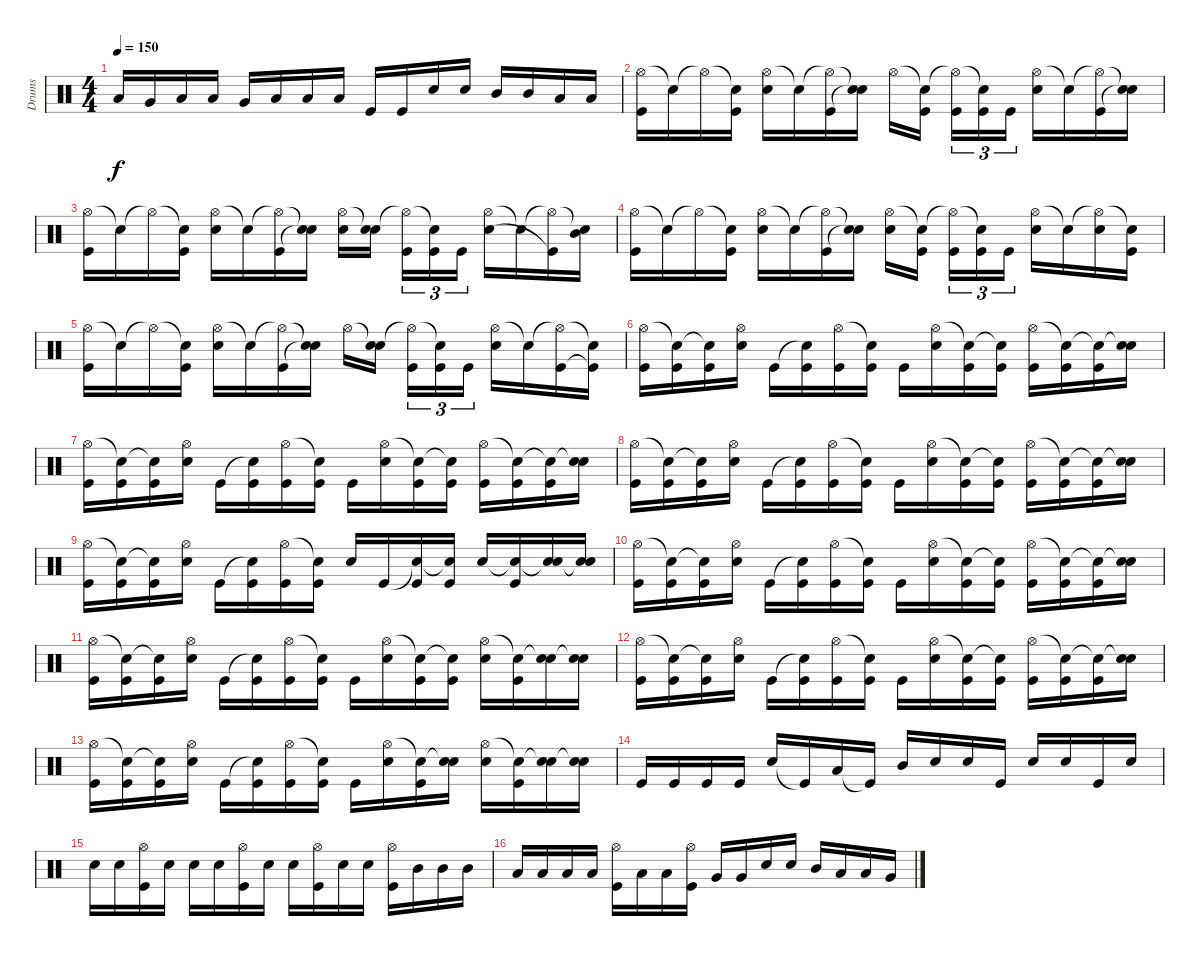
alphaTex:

\track ("Drums" "Drums") {instrument percussion}
\staff {score}
\articulation defaults
\ts (4 4)
\tempo 150
\clef neutral
\ks c "Low Tom (hit)".16{dy f} "Very Low Tom (hit)".16 "Low Floor Tom (hit)".16 "Low Tom (hit)".16 "Very Low Tom (hit)".16 "Low Floor Tom (hit)".16 "Low Tom (hit)".16 "Low Tom (hit)".16 "Kick (hit)".16 "Kick (hit)".16 "Electric Snare (hit)".16 "Electric Snare (hit)".16 "Mid Tom (hit)".16 "Mid Tom (hit)".16 "Low Tom (hit)".16 "Low Tom (hit)".16
|
("Hi-Hat (open)" "Kick (hit)").16 "Snare (hit)"{t}.16 "Hi-Hat (open)"{t}.16 ("Snare (hit)"{t} "Kick (hit)").16 ("Hi-Hat (open)" "Electric Snare (hit)").16 "Snare (hit)"{t}.16 ("Hi-Hat (open)"{t} "Kick (hit)").16 ("Snare (hit)"{t} "Electric Snare (hit)"{t}).16 "Hi-Hat (open)".16 ("Snare (hit)"{t} "Kick (hit)").16 ("Hi-Hat (open)"{t} "Kick (hit)").16{tu (3 2)} ("Snare (hit)"{t} "Kick (hit)").16{tu (3 2)} "Kick (hit)".16{tu (3 2)} ("Hi-Hat (open)" "Electric Snare (hit)").16 "Snare (hit)"{t}.16 ("Hi-Hat (open)"{t} "Kick (hit)").16 ("Snare (hit)"{t} "Electric Snare (hit)"{t}).16 |
("Hi-Hat (open)" "Kick (hit)").16 "Snare (hit)"{t}.16 "Hi-Hat (open)"{t}.16 ("Snare (hit)"{t} "Kick (hit)").16 ("Hi-Hat (open)" "Electric Snare (hit)").16 "Snare (hit)"{t}.16 ("Hi-Hat (open)"{t} "Kick (hit)").16 ("Snare (hit)"{t} "Electric Snare (hit)"{t}).16 ("Hi-Hat (open)" "Electric Snare (hit)").16 ("Snare (hit)"{t} "Electric Snare (hit)").16 ("Hi-Hat (open)"{t} "Kick (hit)").16{tu (3 2)} ("Snare (hit)"{t} "Kick (hit)").16{tu (3 2)} "Kick (hit)".16{tu (3 2)} ("Hi-Hat (open)" "Electric Snare (hit)").16 "Snare (hit)"{t}.16 ("Hi-Hat (open)"{t} "Kick (hit)"{t}).16 ("Snare (hit)"{t} "Mid Tom (hit)").16 |
("Hi-Hat (open)" "Kick (hit)").16 "Snare (hit)"{t}.16 "Hi-Hat (open)"{t}.16 ("Snare (hit)"{t} "Kick (hit)").16 ("Hi-Hat (open)" "Electric Snare (hit)").16 "Snare (hit)"{t}.16 ("Hi-Hat (open)"{t} "Kick (hit)").16 ("Snare (hit)"{t} "Electric Snare (hit)"{t}).16 ("Hi-Hat (open)" "Electric Snare (hit)").16 ("Snare (hit)"{t} "Kick (hit)").16 ("Hi-Hat (open)"{t} "Kick (hit)").16{tu (3 2)} ("Snare (hit)"{t} "Kick (hit)").16{tu (3 2)} "Kick (hit)".16{tu (3 2)} ("Hi-Hat (open)" "Electric Snare (hit)").16 "Snare (hit)"{t}.16 ("Hi-Hat (open)"{t} "Electric Snare (hit)").16 ("Snare (hit)"{t} "Kick (hit)").16 |
("Hi-Hat (open)" "Kick (hit)").16 "Snare (hit)"{t}.16 "Hi-Hat (open)"{t}.16 ("Snare (hit)"{t} "Kick (hit)").16 ("Hi-Hat (open)" "Electric Snare (hit)").16 "Snare (hit)"{t}.16 ("Hi-Hat (open)"{t} "Kick (hit)").16 ("Snare (hit)"{t} "Electric Snare (hit)"{t}).16 "Hi-Hat (open)".16 ("Snare (hit)"{t} "Electric Snare (hit)").16 ("Hi-Hat (open)"{t} "Kick (hit)").16{tu (3 2)} ("Snare (hit)"{t} "Kick (hit)").16{tu (3 2)} "Kick (hit)".16{tu (3 2)} ("Hi-Hat (open)" "Electric Snare (hit)").16 "Snare (hit)"{t}.16 ("Hi-Hat (open)"{t} "Kick (hit)").16 ("Snare (hit)"{t} "Kick (hit)"{t}).16 |
("Hi-Hat (open)" "Kick (hit)").16 ("Snare (hit)"{t} "Kick (hit)").16 ("Snare (hit)"{t} "Kick (hit)").16 ("Hi-Hat (open)" "Electric Snare (hit)").16 "Kick (hit)".16 ("Snare (hit)"{t} "Kick (hit)").16 ("Hi-Hat (open)" "Kick (hit)").16 ("Snare (hit)"{t} "Kick (hit)").16 "Kick (hit)".16 ("Hi-Hat (open)" "Electric Snare (hit)").16 ("Snare (hit)"{t} "Kick (hit)").16 ("Snare (hit)"{t} "Kick (hit)").16 ("Hi-Hat (open)" "Kick (hit)").16 ("Snare (hit)"{t} "Kick (hit)").16 ("Snare (hit)"{t} "Kick (hit)").16 ("Snare (hit)"{t} "Electric Snare (hit)").16 |
("Hi-Hat (open)" "Kick (hit)").16 ("Snare (hit)"{t} "Kick (hit)").16 ("Snare (hit)"{t} "Kick (hit)").16 ("Hi-Hat (open)" "Electric Snare (hit)").16 "Kick (hit)".16 ("Snare (hit)"{t} "Kick (hit)").16 ("Hi-Hat (open)" "Kick (hit)").16 ("Snare (hit)"{t} "Kick (hit)").16 "Kick (hit)".16 ("Hi-Hat (open)" "Electric Snare (hit)").16 ("Snare (hit)"{t} "Kick (hit)").16 ("Snare (hit)"{t} "Kick (hit)").16 ("Hi-Hat (open)" "Kick (hit)").16 ("Snare (hit)"{t} "Kick (hit)").16 ("Snare (hit)"{t} "Kick (hit)").16 ("Snare (hit)"{t} "Electric Snare (hit)").16 |
("Hi-Hat (open)" "Kick (hit)").16 ("Snare (hit)"{t} "Kick (hit)").16 ("Snare (hit)"{t} "Kick (hit)").16 ("Hi-Hat (open)" "Electric Snare (hit)").16 "Kick (hit)".16 ("Snare (hit)"{t} "Kick (hit)").16 ("Hi-Hat (open)" "Kick (hit)").16 ("Snare (hit)"{t} "Kick (hit)").16 "Kick (hit)".16 ("Hi-Hat (open)" "Electric Snare (hit)").16 ("Snare (hit)"{t} "Kick (hit)").16 ("Snare (hit)"{t} "Kick (hit)").16 ("Hi-Hat (open)" "Kick (hit)").16 ("Snare (hit)"{t} "Kick (hit)").16 ("Snare (hit)"{t} "Kick (hit)").16 ("Snare (hit)"{t} "Electric Snare (hit)").16 |
("Hi-Hat (open)" "Kick (hit)").16 ("Snare (hit)"{t} "Kick (hit)").16 ("Snare (hit)"{t} "Kick (hit)").16 ("Hi-Hat (open)" "Electric Snare (hit)").16 "Kick (hit)".16 ("Snare (hit)"{t} "Kick (hit)").16 ("Hi-Hat (open)" "Kick (hit)").16 ("Snare (hit)"{t} "Kick (hit)").16 "Electric Snare (hit)".16 "Kick (hit)".16 ("Snare (hit)"{t} "Kick (hit)").16 ("Snare (hit)"{t} "Kick (hit)").16 "Electric Snare (hit)".16 ("Snare (hit)"{t} "Kick (hit)").16 ("Snare (hit)"{t} "Electric Snare (hit)").16 ("Snare (hit)"{t} "Electric Snare (hit)").16 |
("Hi-Hat (open)" "Kick (hit)").16 ("Snare (hit)"{t} "Kick (hit)").16 ("Snare (hit)"{t} "Kick (hit)").16 ("Hi-Hat (open)" "Electric Snare (hit)").16 "Kick (hit)".16 ("Snare (hit)"{t} "Kick (hit)").16 ("Hi-Hat (open)" "Kick (hit)").16 ("Snare (hit)"{t} "Kick (hit)").16 "Kick (hit)".16 ("Hi-Hat (open)" "Electric Snare (hit)").16 ("Snare (hit)"{t} "Kick (hit)").16 ("Snare (hit)"{t} "Kick (hit)").16 ("Hi-Hat (open)" "Kick (hit)").16 ("Snare (hit)"{t} "Kick (hit)").16 ("Snare (hit)"{t} "Kick (hit)").16 ("Snare (hit)"{t} "Electric Snare (hit)").16 |
("Hi-Hat (open)" "Kick (hit)").16 ("Snare (hit)"{t} "Kick (hit)").16 ("Snare (hit)"{t} "Kick (hit)").16 ("Hi-Hat (open)" "Electric Snare (hit)").16 "Kick (hit)".16 ("Snare (hit)"{t} "Kick (hit)").16 ("Hi-Hat (open)" "Kick (hit)").16 ("Snare (hit)"{t} "Kick (hit)").16 "Kick (hit)".16 ("Hi-Hat (open)" "Electric Snare (hit)").16 ("Snare (hit)"{t} "Kick (hit)").16 ("Snare (hit)"{t} "Kick (hit)").16 ("Hi-Hat (open)" "Electric Snare (hit)").16 ("Snare (hit)"{t} "Kick (hit)").16 ("Snare (hit)"{t} "Electric Snare (hit)").16 ("Snare (hit)"{t} "Electric Snare (hit)").16 |
("Hi-Hat (open)" "Kick (hit)").16 ("Snare (hit)"{t} "Kick (hit)").16 ("Snare (hit)"{t} "Kick (hit)").16 ("Hi-Hat (open)" "Electric Snare (hit)").16 "Kick (hit)".16 ("Snare (hit)"{t} "Kick (hit)").16 ("Hi-Hat (open)" "Kick (hit)").16 ("Snare (hit)"{t} "Kick (hit)").16 "Kick (hit)".16 ("Hi-Hat (open)" "Electric Snare (hit)").16 ("Snare (hit)"{t} "Kick (hit)").16 ("Snare (hit)"{t} "Kick (hit)").16 ("Hi-Hat (open)" "Kick (hit)").16 ("Snare (hit)"{t} "Kick (hit)").16 ("Snare (hit)"{t} "Kick (hit)").16 ("Snare (hit)"{t} "Electric Snare (hit)").16 |
("Hi-Hat (open)" "Kick (hit)").16 ("Snare (hit)"{t} "Kick (hit)").16 ("Snare (hit)"{t} "Kick (hit)").16 ("Hi-Hat (open)" "Electric Snare (hit)").16 "Kick (hit)".16 ("Snare (hit)"{t} "Kick (hit)").16 ("Hi-Hat (open)" "Kick (hit)").16 ("Snare (hit)"{t} "Kick (hit)").16 "Kick (hit)".16 ("Hi-Hat (open)" "Electric Snare (hit)").16 ("Snare (hit)"{t} "Kick (hit)").16 ("Snare (hit)"{t} "Electric Snare (hit)").16 ("Hi-Hat (open)" "Electric Snare (hit)").16 ("Snare (hit)"{t} "Kick (hit)").16 ("Snare (hit)"{t} "Electric Snare (hit)").16 ("Snare (hit)"{t} "Electric Snare (hit)").16 |
"Kick (hit)".16 "Kick (hit)".16 "Kick (hit)".16 "Kick (hit)".16 "Electric Snare (hit)".16 "Kick (hit)"{t}.16 "Low Tom (hit)".16 "Kick (hit)"{t}.16 "Mid Tom (hit)".16 "Electric Snare (hit)".16 "Electric Snare (hit)".16 "Kick (hit)".16 "Electric Snare (hit)".16 "Electric Snare (hit)".16 "Kick (hit)".16 "Electric Snare (hit)".16 |
"Electric Snare (hit)".16 "Electric Snare (hit)".16 ("Hi-Hat (open)" "Kick (hit)").16 "Electric Snare (hit)".16 "Electric Snare (hit)".16 "Electric Snare (hit)".16 ("Hi-Hat (open)" "Kick (hit)").16 "Electric Snare (hit)".16 "Electric Snare (hit)".16 ("Hi-Hat (open)" "Kick (hit)").16 "Electric Snare (hit)".16 "Electric Snare (hit)".16 ("Hi-Hat (open)" "Kick (hit)").16 "Mid Tom (hit)".16 "Mid Tom (hit)".16 "Mid Tom (hit)".16 |
"Low Tom (hit)".16 "Low Tom (hit)".16 "Low Tom (hit)".16 "Low Tom (hit)".16 ("Hi-Hat (open)" "Kick (hit)").16 "Low Tom (hit)".16 "Low Tom (hit)".16 ("Hi-Hat (open)" "Kick (hit)").16 "Very Low Tom (hit)".16 "Very Low Tom (hit)".16 "Electric Snare (hit)".16 "Electric Snare (hit)".16 "Mid Tom (hit)".16 "Low Tom (hit)".16 "Low Tom (hit)".16 "Very Low Tom (hit)".16
